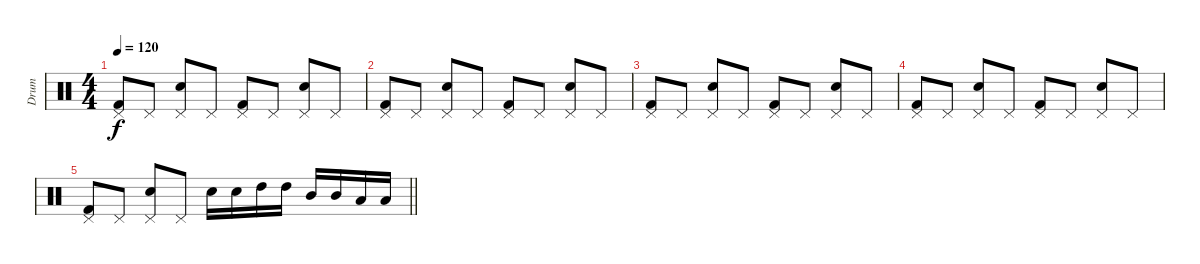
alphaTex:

\track ("Drum" "Drum") {instrument percussion}
\staff {score}
\articulation defaults
\ts (4 4)
\tempo 120
\clef neutral
\ks c
("Pedal Hi-Hat (hit)" "Kick (hit) 2").8{dy f} "Pedal Hi-Hat (hit)".8 ("Pedal Hi-Hat (hit)" "Electric Snare (hit)").8 "Pedal Hi-Hat (hit)".8 ("Pedal Hi-Hat (hit)" "Kick (hit) 2").8 "Pedal Hi-Hat (hit)".8 ("Pedal Hi-Hat (hit)" "Electric Snare (hit)").8 "Pedal Hi-Hat (hit)".8 |
("Pedal Hi-Hat (hit)" "Kick (hit) 2").8 "Pedal Hi-Hat (hit)".8 ("Pedal Hi-Hat (hit)" "Electric Snare (hit)").8 "Pedal Hi-Hat (hit)".8 ("Pedal Hi-Hat (hit)" "Kick (hit) 2").8 "Pedal Hi-Hat (hit)".8 ("Pedal Hi-Hat (hit)" "Electric Snare (hit)").8 "Pedal Hi-Hat (hit)".8 |
("Pedal Hi-Hat (hit)" "Kick (hit) 2").8 "Pedal Hi-Hat (hit)".8 ("Pedal Hi-Hat (hit)" "Electric Snare (hit)").8 "Pedal Hi-Hat (hit)".8 ("Pedal Hi-Hat (hit)" "Kick (hit) 2").8 "Pedal Hi-Hat (hit)".8 ("Pedal Hi-Hat (hit)" "Electric Snare (hit)").8 "Pedal Hi-Hat (hit)".8 |
("Pedal Hi-Hat (hit)" "Kick (hit) 2").8 "Pedal Hi-Hat (hit)".8 ("Pedal Hi-Hat (hit)" "Electric Snare (hit)").8 "Pedal Hi-Hat (hit)".8 ("Pedal Hi-Hat (hit)" "Kick (hit) 2").8 "Pedal Hi-Hat (hit)".8 ("Pedal Hi-Hat (hit)" "Electric Snare (hit)").8 "Pedal Hi-Hat (hit)".8 |
\barLineRight lightlight
("Pedal Hi-Hat (hit)" "Kick (hit) 2").8 "Pedal Hi-Hat (hit)".8 ("Pedal Hi-Hat (hit)" "Electric Snare (hit)").8 "Pedal Hi-Hat (hit)".8 "Electric Snare (hit)".16 "Electric Snare (hit)".16 "High Tom (hit)".16 "High Tom (hit)".16 "Mid Tom (hit)".16 "Mid Tom (hit)".16 "Low Tom (hit)".16 "Low Tom (hit)".16
